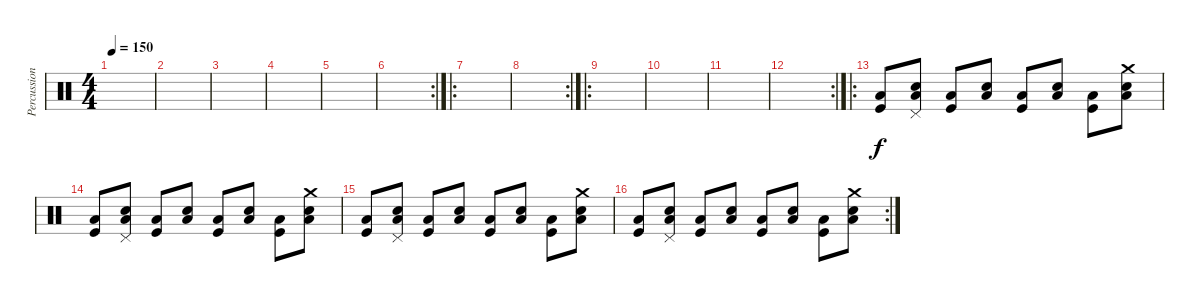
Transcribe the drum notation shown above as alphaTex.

\track ("Percussions" "Percussion") {instrument percussion}
\staff {score}
\articulation defaults
\ts (4 4)
\tempo 150
\clef neutral
\ks c
|
|
|
|
|
\rc 2
|
\ro
|
\rc 2
|
\ro
|
|
|
\rc 2
|
\ro
("Low Floor Tom (hit)" "Kick (hit)").8 ("Low Floor Tom (hit)" "Snare (hit) 2" "Pedal Hi-Hat (hit)").8 ("Low Floor Tom (hit)" "Kick (hit)").8 ("Low Floor Tom (hit)" "Snare (hit) 2").8 ("Low Floor Tom (hit)" "Kick (hit)").8 ("Low Floor Tom (hit)" "Snare (hit) 2").8 ("Low Floor Tom (hit)" "Kick (hit)").8 ("Low Floor Tom (hit)" "Snare (hit) 2" "Crash medium (hit)").8 |
("Low Floor Tom (hit)" "Kick (hit)").8 ("Low Floor Tom (hit)" "Snare (hit) 2" "Pedal Hi-Hat (hit)").8 ("Low Floor Tom (hit)" "Kick (hit)").8 ("Low Floor Tom (hit)" "Snare (hit) 2").8 ("Low Floor Tom (hit)" "Kick (hit)").8 ("Low Floor Tom (hit)" "Snare (hit) 2").8 ("Low Floor Tom (hit)" "Kick (hit)").8 ("Low Floor Tom (hit)" "Snare (hit) 2" "Crash medium (hit)").8 |
("Low Floor Tom (hit)" "Kick (hit)").8 ("Low Floor Tom (hit)" "Snare (hit) 2" "Pedal Hi-Hat (hit)").8 ("Low Floor Tom (hit)" "Kick (hit)").8 ("Low Floor Tom (hit)" "Snare (hit) 2").8 ("Low Floor Tom (hit)" "Kick (hit)").8 ("Low Floor Tom (hit)" "Snare (hit) 2").8 ("Low Floor Tom (hit)" "Kick (hit)").8 ("Low Floor Tom (hit)" "Snare (hit) 2" "Crash medium (hit)").8 |
\rc 2
("Low Floor Tom (hit)" "Kick (hit)").8 ("Low Floor Tom (hit)" "Snare (hit) 2" "Pedal Hi-Hat (hit)").8 ("Low Floor Tom (hit)" "Kick (hit)").8 ("Low Floor Tom (hit)" "Snare (hit) 2").8 ("Low Floor Tom (hit)" "Kick (hit)").8 ("Low Floor Tom (hit)" "Snare (hit) 2").8 ("Low Floor Tom (hit)" "Kick (hit)").8 ("Low Floor Tom (hit)" "Snare (hit) 2" "Crash medium (hit)").8
